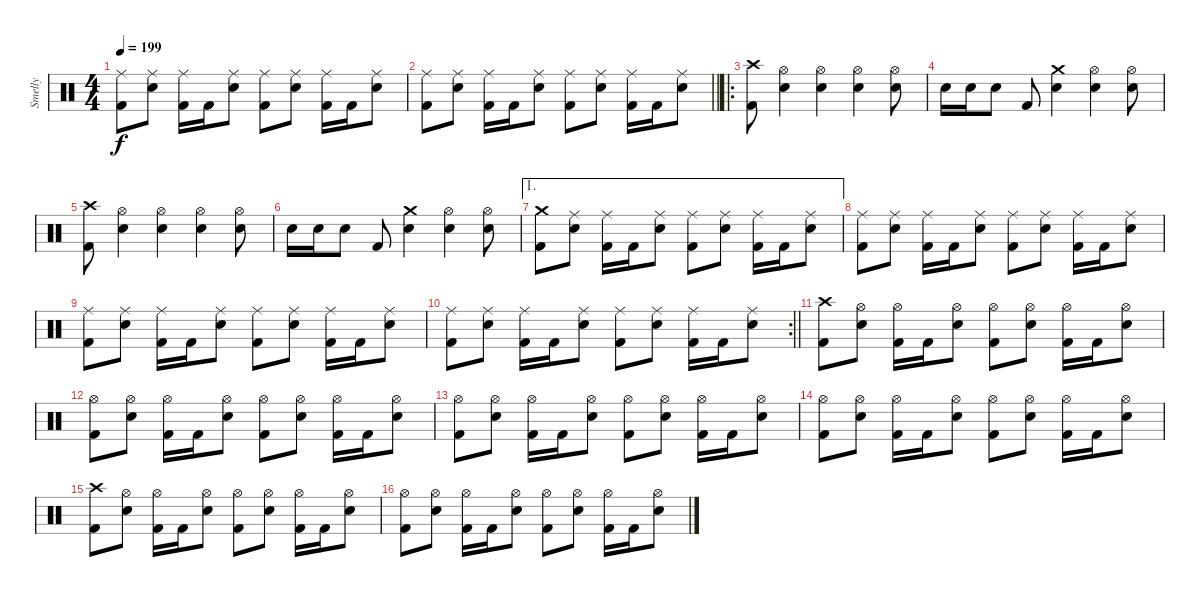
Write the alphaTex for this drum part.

\track ("Smelly" "Smelly") {instrument percussion}
\staff {score}
\articulation defaults
\ts (4 4)
\tempo 199
\clef neutral
\ks c
("Ride (middle)" "Kick (hit) 2").8{dy f} ("Ride (middle)" "Electric Snare (hit)").8 ("Ride (middle)" "Kick (hit) 2").16 "Kick (hit) 2".16 ("Ride (middle)" "Electric Snare (hit)").8 ("Ride (middle)" "Kick (hit) 2").8 ("Ride (middle)" "Electric Snare (hit)").8 ("Ride (middle)" "Kick (hit) 2").16 "Kick (hit) 2".16 ("Ride (middle)" "Electric Snare (hit)").8 |
\barLineRight lightlight
("Ride (middle)" "Kick (hit) 2").8 ("Ride (middle)" "Electric Snare (hit)").8 ("Ride (middle)" "Kick (hit) 2").16 "Kick (hit) 2".16 ("Ride (middle)" "Electric Snare (hit)").8 ("Ride (middle)" "Kick (hit) 2").8 ("Ride (middle)" "Electric Snare (hit)").8 ("Ride (middle)" "Kick (hit) 2").16 "Kick (hit) 2".16 ("Ride (middle)" "Electric Snare (hit)").8 |
\ro
\section ("" "")
("Crash high (hit)" "Kick (hit) 2").8 ("Hi-Hat (open)" "Electric Snare (hit)").4 ("Hi-Hat (open)" "Electric Snare (hit)").4 ("Hi-Hat (open)" "Electric Snare (hit)").4 ("Hi-Hat (open)" "Electric Snare (hit)").8 |
"Electric Snare (hit)".16 "Electric Snare (hit)".16 "Electric Snare (hit)".8 "Kick (hit) 2".8 ("Crash medium (hit)" "Electric Snare (hit)").4 ("Hi-Hat (open)" "Electric Snare (hit)").4 ("Hi-Hat (open)" "Electric Snare (hit)").8 |
("Crash high (hit)" "Kick (hit) 2").8 ("Hi-Hat (open)" "Electric Snare (hit)").4 ("Hi-Hat (open)" "Electric Snare (hit)").4 ("Hi-Hat (open)" "Electric Snare (hit)").4 ("Hi-Hat (open)" "Electric Snare (hit)").8 |
"Electric Snare (hit)".16 "Electric Snare (hit)".16 "Electric Snare (hit)".8 "Kick (hit) 2".8 ("Crash medium (hit)" "Electric Snare (hit)").4 ("Hi-Hat (open)" "Electric Snare (hit)").4 ("Hi-Hat (open)" "Electric Snare (hit)").8 |
\ae 1
("Crash medium (hit)" "Kick (hit) 2").8 ("Ride (middle)" "Electric Snare (hit)").8 ("Ride (middle)" "Kick (hit) 2").16 "Kick (hit) 2".16 ("Ride (middle)" "Electric Snare (hit)").8 ("Ride (middle)" "Kick (hit) 2").8 ("Ride (middle)" "Electric Snare (hit)").8 ("Ride (middle)" "Kick (hit) 2").16 "Kick (hit) 2".16 ("Ride (middle)" "Electric Snare (hit)").8 |
("Ride (middle)" "Kick (hit) 2").8 ("Ride (middle)" "Electric Snare (hit)").8 ("Ride (middle)" "Kick (hit) 2").16 "Kick (hit) 2".16 ("Ride (middle)" "Electric Snare (hit)").8 ("Ride (middle)" "Kick (hit) 2").8 ("Ride (middle)" "Electric Snare (hit)").8 ("Ride (middle)" "Kick (hit) 2").16 "Kick (hit) 2".16 ("Ride (middle)" "Electric Snare (hit)").8 |
("Ride (middle)" "Kick (hit) 2").8 ("Ride (middle)" "Electric Snare (hit)").8 ("Ride (middle)" "Kick (hit) 2").16 "Kick (hit) 2".16 ("Ride (middle)" "Electric Snare (hit)").8 ("Ride (middle)" "Kick (hit) 2").8 ("Ride (middle)" "Electric Snare (hit)").8 ("Ride (middle)" "Kick (hit) 2").16 "Kick (hit) 2".16 ("Ride (middle)" "Electric Snare (hit)").8 |
\rc 2
\barLineRight lightlight
("Ride (middle)" "Kick (hit) 2").8 ("Ride (middle)" "Electric Snare (hit)").8 ("Ride (middle)" "Kick (hit) 2").16 "Kick (hit) 2".16 ("Ride (middle)" "Electric Snare (hit)").8 ("Ride (middle)" "Kick (hit) 2").8 ("Ride (middle)" "Electric Snare (hit)").8 ("Ride (middle)" "Kick (hit) 2").16 "Kick (hit) 2".16 ("Ride (middle)" "Electric Snare (hit)").8 |
\section ("" "")
("Crash high (hit)" "Kick (hit) 2").8 ("Hi-Hat (open)" "Electric Snare (hit)").8 ("Hi-Hat (open)" "Kick (hit) 2").16 "Kick (hit) 2".16 ("Hi-Hat (open)" "Electric Snare (hit)").8 ("Hi-Hat (open)" "Kick (hit) 2").8 ("Hi-Hat (open)" "Electric Snare (hit)").8 ("Hi-Hat (open)" "Kick (hit) 2").16 "Kick (hit) 2".16 ("Hi-Hat (open)" "Electric Snare (hit)").8 |
("Hi-Hat (open)" "Kick (hit) 2").8 ("Hi-Hat (open)" "Electric Snare (hit)").8 ("Hi-Hat (open)" "Kick (hit) 2").16 "Kick (hit) 2".16 ("Hi-Hat (open)" "Electric Snare (hit)").8 ("Hi-Hat (open)" "Kick (hit) 2").8 ("Hi-Hat (open)" "Electric Snare (hit)").8 ("Hi-Hat (open)" "Kick (hit) 2").16 "Kick (hit) 2".16 ("Hi-Hat (open)" "Electric Snare (hit)").8 |
("Hi-Hat (open)" "Kick (hit) 2").8 ("Hi-Hat (open)" "Electric Snare (hit)").8 ("Hi-Hat (open)" "Kick (hit) 2").16 "Kick (hit) 2".16 ("Hi-Hat (open)" "Electric Snare (hit)").8 ("Hi-Hat (open)" "Kick (hit) 2").8 ("Hi-Hat (open)" "Electric Snare (hit)").8 ("Hi-Hat (open)" "Kick (hit) 2").16 "Kick (hit) 2".16 ("Hi-Hat (open)" "Electric Snare (hit)").8 |
("Hi-Hat (open)" "Kick (hit) 2").8 ("Hi-Hat (open)" "Electric Snare (hit)").8 ("Hi-Hat (open)" "Kick (hit) 2").16 "Kick (hit) 2".16 ("Hi-Hat (open)" "Electric Snare (hit)").8 ("Hi-Hat (open)" "Kick (hit) 2").8 ("Hi-Hat (open)" "Electric Snare (hit)").8 ("Hi-Hat (open)" "Kick (hit) 2").16 "Kick (hit) 2".16 ("Hi-Hat (open)" "Electric Snare (hit)").8 |
("Crash high (hit)" "Kick (hit) 2").8 ("Hi-Hat (open)" "Electric Snare (hit)").8 ("Hi-Hat (open)" "Kick (hit) 2").16 "Kick (hit) 2".16 ("Hi-Hat (open)" "Electric Snare (hit)").8 ("Hi-Hat (open)" "Kick (hit) 2").8 ("Hi-Hat (open)" "Electric Snare (hit)").8 ("Hi-Hat (open)" "Kick (hit) 2").16 "Kick (hit) 2".16 ("Hi-Hat (open)" "Electric Snare (hit)").8 |
("Hi-Hat (open)" "Kick (hit) 2").8 ("Hi-Hat (open)" "Electric Snare (hit)").8 ("Hi-Hat (open)" "Kick (hit) 2").16 "Kick (hit) 2".16 ("Hi-Hat (open)" "Electric Snare (hit)").8 ("Hi-Hat (open)" "Kick (hit) 2").8 ("Hi-Hat (open)" "Electric Snare (hit)").8 ("Hi-Hat (open)" "Kick (hit) 2").16 "Kick (hit) 2".16 ("Hi-Hat (open)" "Electric Snare (hit)").8
